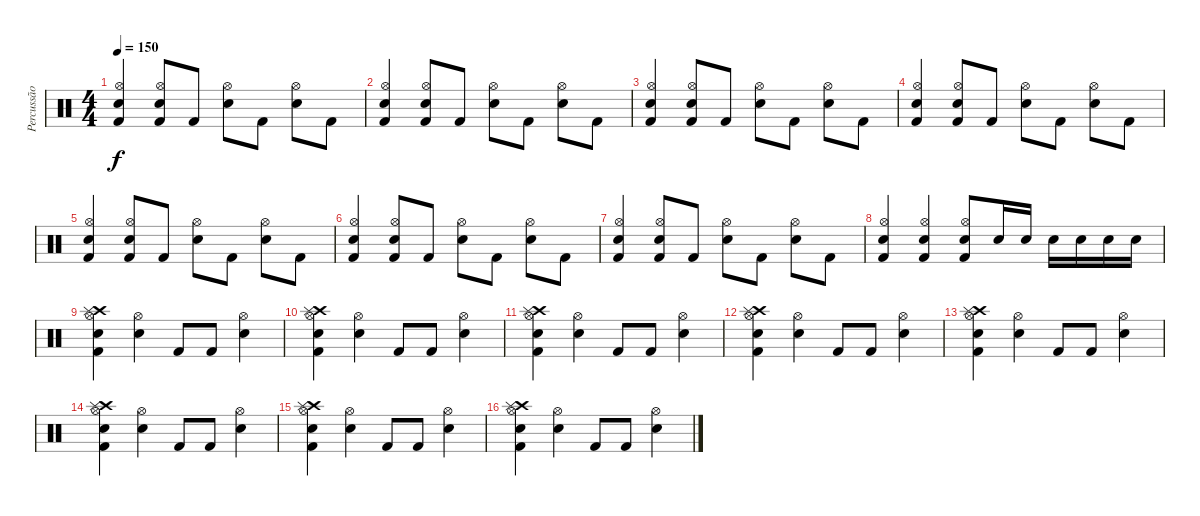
\track ("Percussão" "Percussão") {instrument percussion}
\staff {score}
\articulation defaults
\ts (4 4)
\tempo 150
\clef neutral
\ks c
("Kick (hit) 2" "Hi-Hat (open)" "Electric Snare (hit)").4{dy f} ("Kick (hit) 2" "Hi-Hat (open)" "Electric Snare (hit)").8 "Kick (hit) 2".8 ("Hi-Hat (open)" "Electric Snare (hit)").8 "Kick (hit) 2".8 ("Hi-Hat (open)" "Electric Snare (hit)").8 "Kick (hit) 2".8 |
("Kick (hit) 2" "Hi-Hat (open)" "Electric Snare (hit)").4 ("Kick (hit) 2" "Hi-Hat (open)" "Electric Snare (hit)").8 "Kick (hit) 2".8 ("Hi-Hat (open)" "Electric Snare (hit)").8 "Kick (hit) 2".8 ("Hi-Hat (open)" "Electric Snare (hit)").8 "Kick (hit) 2".8 |
("Kick (hit) 2" "Hi-Hat (open)" "Electric Snare (hit)").4 ("Kick (hit) 2" "Hi-Hat (open)" "Electric Snare (hit)").8 "Kick (hit) 2".8 ("Hi-Hat (open)" "Electric Snare (hit)").8 "Kick (hit) 2".8 ("Hi-Hat (open)" "Electric Snare (hit)").8 "Kick (hit) 2".8 |
("Kick (hit) 2" "Hi-Hat (open)" "Electric Snare (hit)").4 ("Kick (hit) 2" "Hi-Hat (open)" "Electric Snare (hit)").8 "Kick (hit) 2".8 ("Hi-Hat (open)" "Electric Snare (hit)").8 "Kick (hit) 2".8 ("Hi-Hat (open)" "Electric Snare (hit)").8 "Kick (hit) 2".8 |
("Kick (hit) 2" "Hi-Hat (open)" "Electric Snare (hit)").4 ("Kick (hit) 2" "Hi-Hat (open)" "Electric Snare (hit)").8 "Kick (hit) 2".8 ("Hi-Hat (open)" "Electric Snare (hit)").8 "Kick (hit) 2".8 ("Hi-Hat (open)" "Electric Snare (hit)").8 "Kick (hit) 2".8 |
("Kick (hit) 2" "Hi-Hat (open)" "Electric Snare (hit)").4 ("Kick (hit) 2" "Hi-Hat (open)" "Electric Snare (hit)").8 "Kick (hit) 2".8 ("Hi-Hat (open)" "Electric Snare (hit)").8 "Kick (hit) 2".8 ("Hi-Hat (open)" "Electric Snare (hit)").8 "Kick (hit) 2".8 |
("Kick (hit) 2" "Hi-Hat (open)" "Electric Snare (hit)").4 ("Kick (hit) 2" "Hi-Hat (open)" "Electric Snare (hit)").8 "Kick (hit) 2".8 ("Hi-Hat (open)" "Electric Snare (hit)").8 "Kick (hit) 2".8 ("Hi-Hat (open)" "Electric Snare (hit)").8 "Kick (hit) 2".8 |
("Kick (hit) 2" "Hi-Hat (open)" "Electric Snare (hit)").4 ("Kick (hit) 2" "Hi-Hat (open)" "Electric Snare (hit)").4 ("Kick (hit) 2" "Hi-Hat (open)" "Electric Snare (hit)").8 "Electric Snare (hit)".16 "Electric Snare (hit)".16 "Electric Snare (hit)".16 "Electric Snare (hit)".16 "Electric Snare (hit)".16 "Electric Snare (hit)".16 |
("Kick (hit) 2" "Crash high (hit)" "Splash (hit)" "Hi-Hat (open)" "Electric Snare (hit)").4 ("Hi-Hat (open)" "Electric Snare (hit)").4 "Kick (hit) 2".8 "Kick (hit) 2".8 ("Hi-Hat (open)" "Electric Snare (hit)").4 |
("Kick (hit) 2" "Crash high (hit)" "Splash (hit)" "Hi-Hat (open)" "Electric Snare (hit)").4 ("Hi-Hat (open)" "Electric Snare (hit)").4 "Kick (hit) 2".8 "Kick (hit) 2".8 ("Hi-Hat (open)" "Electric Snare (hit)").4 |
("Kick (hit) 2" "Crash high (hit)" "Splash (hit)" "Hi-Hat (open)" "Electric Snare (hit)").4 ("Hi-Hat (open)" "Electric Snare (hit)").4 "Kick (hit) 2".8 "Kick (hit) 2".8 ("Hi-Hat (open)" "Electric Snare (hit)").4 |
("Kick (hit) 2" "Crash high (hit)" "Splash (hit)" "Hi-Hat (open)" "Electric Snare (hit)").4 ("Hi-Hat (open)" "Electric Snare (hit)").4 "Kick (hit) 2".8 "Kick (hit) 2".8 ("Hi-Hat (open)" "Electric Snare (hit)").4 |
("Kick (hit) 2" "Crash high (hit)" "Splash (hit)" "Hi-Hat (open)" "Electric Snare (hit)").4 ("Hi-Hat (open)" "Electric Snare (hit)").4 "Kick (hit) 2".8 "Kick (hit) 2".8 ("Hi-Hat (open)" "Electric Snare (hit)").4 |
("Kick (hit) 2" "Crash high (hit)" "Splash (hit)" "Hi-Hat (open)" "Electric Snare (hit)").4 ("Hi-Hat (open)" "Electric Snare (hit)").4 "Kick (hit) 2".8 "Kick (hit) 2".8 ("Hi-Hat (open)" "Electric Snare (hit)").4 |
("Kick (hit) 2" "Crash high (hit)" "Splash (hit)" "Hi-Hat (open)" "Electric Snare (hit)").4 ("Hi-Hat (open)" "Electric Snare (hit)").4 "Kick (hit) 2".8 "Kick (hit) 2".8 ("Hi-Hat (open)" "Electric Snare (hit)").4 |
("Kick (hit) 2" "Crash high (hit)" "Splash (hit)" "Hi-Hat (open)" "Electric Snare (hit)").4 ("Hi-Hat (open)" "Electric Snare (hit)").4 "Kick (hit) 2".8 "Kick (hit) 2".8 ("Hi-Hat (open)" "Electric Snare (hit)").4
